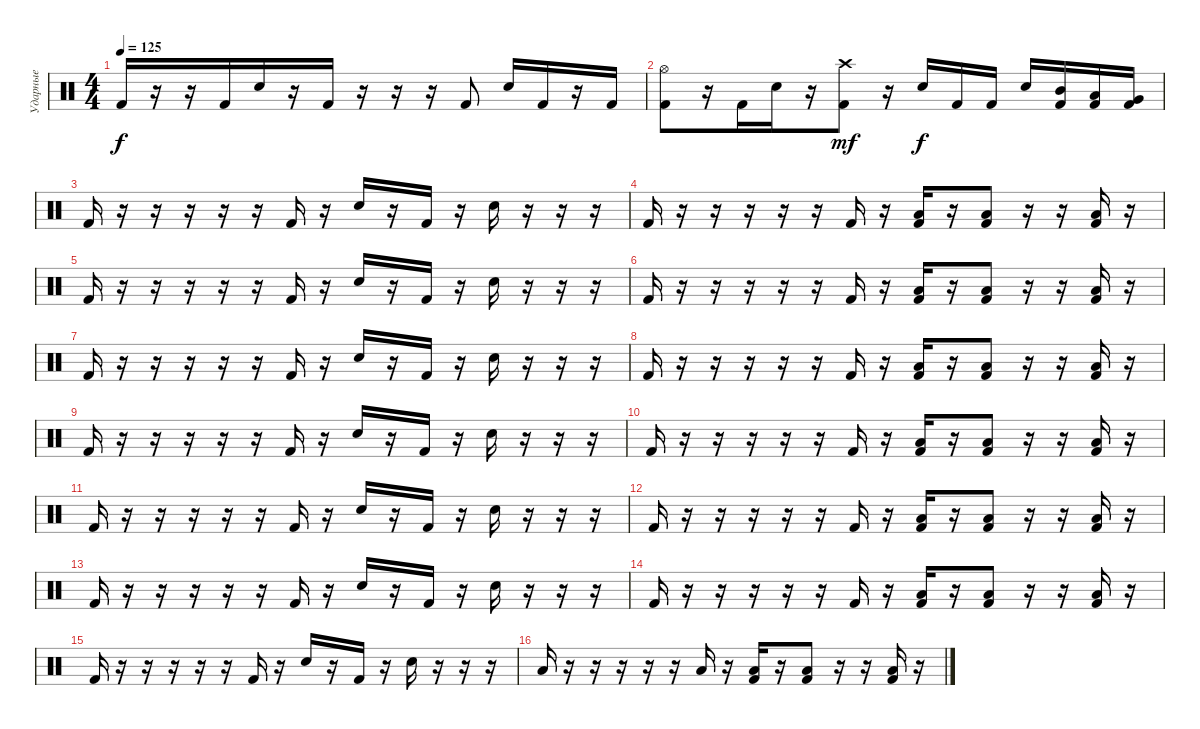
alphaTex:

\track ("Ударные" "Ударные") {instrument percussion}
\staff {score}
\articulation defaults
\ts (4 4)
\tempo 125
\clef neutral
\ks c "Kick (hit) 2".16{dy f}
r.16 r.16 "Kick (hit) 2".16{beam merge} "Electric Snare (hit)".16 r.16 "Kick (hit) 2".16 r.16 r.16 r.16 "Kick (hit) 2".8 "Electric Snare (hit)".16 "Kick (hit) 2".16 r.16 "Kick (hit) 2".16 |
("Hi-Hat (open)" "Kick (hit) 2").8 r.16 "Kick (hit) 2".16{beam merge} "Electric Snare (hit)".16 r.16 ("Crash high (hit)" "Kick (hit) 2").8{dy mf} r.16 "Electric Snare (hit)".16{dy f} "Kick (hit) 2".16 "Kick (hit) 2".16 "Electric Snare (hit)".16 ("Mid Tom (hit)" "Kick (hit) 2").16 ("Low Tom (hit)" "Kick (hit) 2").16 ("Very Low Tom (hit)" "Kick (hit) 2").16 |
"Kick (hit) 2".16 r.16 r.16 r.16{beam merge} r.16 r.16 "Kick (hit) 2".16 r.16 "Electric Snare (hit)".16 r.16 "Kick (hit) 2".16 r.16 "Electric Snare (hit)".16 r.16 r.16 r.16 |
"Kick (hit) 2".16 r.16 r.16 r.16{beam merge} r.16 r.16 "Kick (hit) 2".16 r.16 ("Kick (hit) 2" "Low Floor Tom (hit)").16 r.16 ("Kick (hit) 2" "Low Floor Tom (hit)").8 r.16 r.16 ("Kick (hit) 2" "Low Floor Tom (hit)").16 r.16 |
"Kick (hit) 2".16 r.16 r.16 r.16{beam merge} r.16 r.16 "Kick (hit) 2".16 r.16 "Electric Snare (hit)".16 r.16 "Kick (hit) 2".16 r.16 "Electric Snare (hit)".16 r.16 r.16 r.16 |
"Kick (hit) 2".16 r.16 r.16 r.16{beam merge} r.16 r.16 "Kick (hit) 2".16 r.16 ("Kick (hit) 2" "Low Floor Tom (hit)").16 r.16 ("Kick (hit) 2" "Low Floor Tom (hit)").8 r.16 r.16 ("Kick (hit) 2" "Low Floor Tom (hit)").16 r.16 |
"Kick (hit) 2".16 r.16 r.16 r.16{beam merge} r.16 r.16 "Kick (hit) 2".16 r.16 "Electric Snare (hit)".16 r.16 "Kick (hit) 2".16 r.16 "Electric Snare (hit)".16 r.16 r.16 r.16 |
"Kick (hit) 2".16 r.16 r.16 r.16{beam merge} r.16 r.16 "Kick (hit) 2".16 r.16 ("Kick (hit) 2" "Low Floor Tom (hit)").16 r.16 ("Kick (hit) 2" "Low Floor Tom (hit)").8 r.16 r.16 ("Kick (hit) 2" "Low Floor Tom (hit)").16 r.16 |
"Kick (hit) 2".16 r.16 r.16 r.16{beam merge} r.16 r.16 "Kick (hit) 2".16 r.16 "Electric Snare (hit)".16 r.16 "Kick (hit) 2".16 r.16 "Electric Snare (hit)".16 r.16 r.16 r.16 |
"Kick (hit) 2".16 r.16 r.16 r.16{beam merge} r.16 r.16 "Kick (hit) 2".16 r.16 ("Kick (hit) 2" "Low Floor Tom (hit)").16 r.16 ("Kick (hit) 2" "Low Floor Tom (hit)").8 r.16 r.16 ("Kick (hit) 2" "Low Floor Tom (hit)").16 r.16 |
"Kick (hit) 2".16 r.16 r.16 r.16{beam merge} r.16 r.16 "Kick (hit) 2".16 r.16 "Electric Snare (hit)".16 r.16 "Kick (hit) 2".16 r.16 "Electric Snare (hit)".16 r.16 r.16 r.16 |
"Kick (hit) 2".16 r.16 r.16 r.16{beam merge} r.16 r.16 "Kick (hit) 2".16 r.16 ("Kick (hit) 2" "Low Floor Tom (hit)").16 r.16 ("Kick (hit) 2" "Low Floor Tom (hit)").8 r.16 r.16 ("Kick (hit) 2" "Low Floor Tom (hit)").16 r.16 |
"Kick (hit) 2".16 r.16 r.16 r.16{beam merge} r.16 r.16 "Kick (hit) 2".16 r.16 "Electric Snare (hit)".16 r.16 "Kick (hit) 2".16 r.16 "Electric Snare (hit)".16 r.16 r.16 r.16 |
"Kick (hit) 2".16 r.16 r.16 r.16{beam merge} r.16 r.16 "Kick (hit) 2".16 r.16 ("Kick (hit) 2" "Low Floor Tom (hit)").16 r.16 ("Kick (hit) 2" "Low Floor Tom (hit)").8 r.16 r.16 ("Kick (hit) 2" "Low Floor Tom (hit)").16 r.16 |
"Kick (hit) 2".16 r.16 r.16 r.16{beam merge} r.16 r.16 "Kick (hit) 2".16 r.16 "Electric Snare (hit)".16 r.16 "Kick (hit) 2".16 r.16 "Electric Snare (hit)".16 r.16 r.16 r.16 |
"Low Floor Tom (hit)".16 r.16 r.16 r.16{beam merge} r.16 r.16 "Low Floor Tom (hit)".16 r.16 ("Kick (hit) 2" "Low Floor Tom (hit)").16 r.16 ("Kick (hit) 2" "Low Floor Tom (hit)").8 r.16 r.16 ("Kick (hit) 2" "Low Floor Tom (hit)").16 r.16
